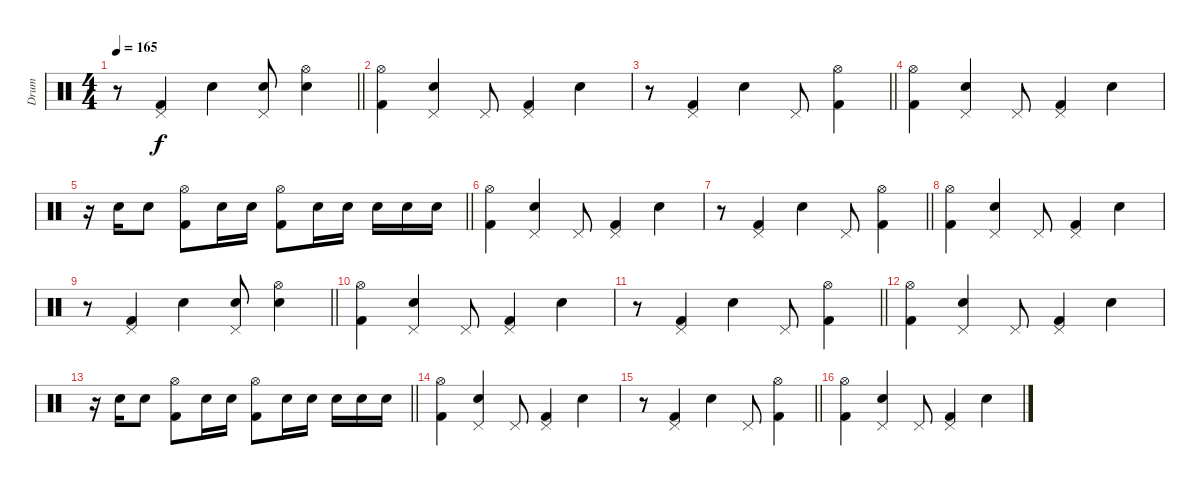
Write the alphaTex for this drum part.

\track ("Drum" "Drum") {instrument percussion}
\staff {score}
\articulation defaults
\ts (4 4)
\tempo 165
\clef neutral
\barLineRight lightlight
\ks c
r.8{dy f} ("Kick (hit) 2" "Pedal Hi-Hat (hit)").4 "Electric Snare (hit)".4 ("Electric Snare (hit)" "Pedal Hi-Hat (hit)").8 ("Electric Snare (hit)" "Hi-Hat (open)").4 |
("Kick (hit) 2" "Hi-Hat (open)").4 ("Electric Snare (hit)" "Pedal Hi-Hat (hit)").4 "Pedal Hi-Hat (hit)".8 ("Kick (hit) 2" "Pedal Hi-Hat (hit)").4 "Electric Snare (hit)".4 |
\barLineRight lightlight
r.8 ("Kick (hit) 2" "Pedal Hi-Hat (hit)").4 "Electric Snare (hit)".4 "Pedal Hi-Hat (hit)".8 ("Kick (hit) 2" "Hi-Hat (open)").4 |
("Kick (hit) 2" "Hi-Hat (open)").4 ("Electric Snare (hit)" "Pedal Hi-Hat (hit)").4 "Pedal Hi-Hat (hit)".8 ("Kick (hit) 2" "Pedal Hi-Hat (hit)").4 "Electric Snare (hit)".4 |
\barLineRight lightlight
r.16 "Electric Snare (hit)".16 "Electric Snare (hit)".8 ("Kick (hit) 2" "Hi-Hat (open)").8 "Electric Snare (hit)".16 "Electric Snare (hit)".16 ("Kick (hit) 2" "Hi-Hat (open)").8 "Electric Snare (hit)".16 "Electric Snare (hit)".16 "Electric Snare (hit)".16 "Electric Snare (hit)".16 "Electric Snare (hit)".16 |
("Kick (hit) 2" "Hi-Hat (open)").4 ("Electric Snare (hit)" "Pedal Hi-Hat (hit)").4 "Pedal Hi-Hat (hit)".8 ("Kick (hit) 2" "Pedal Hi-Hat (hit)").4 "Electric Snare (hit)".4 |
\barLineRight lightlight
r.8 ("Kick (hit) 2" "Pedal Hi-Hat (hit)").4 "Electric Snare (hit)".4 "Pedal Hi-Hat (hit)".8 ("Kick (hit) 2" "Hi-Hat (open)").4 |
("Kick (hit) 2" "Hi-Hat (open)").4 ("Electric Snare (hit)" "Pedal Hi-Hat (hit)").4 "Pedal Hi-Hat (hit)".8 ("Kick (hit) 2" "Pedal Hi-Hat (hit)").4 "Electric Snare (hit)".4 |
\barLineRight lightlight
r.8 ("Kick (hit) 2" "Pedal Hi-Hat (hit)").4 "Electric Snare (hit)".4 ("Electric Snare (hit)" "Pedal Hi-Hat (hit)").8 ("Electric Snare (hit)" "Hi-Hat (open)").4 |
("Kick (hit) 2" "Hi-Hat (open)").4 ("Electric Snare (hit)" "Pedal Hi-Hat (hit)").4 "Pedal Hi-Hat (hit)".8 ("Kick (hit) 2" "Pedal Hi-Hat (hit)").4 "Electric Snare (hit)".4 |
\barLineRight lightlight
r.8 ("Kick (hit) 2" "Pedal Hi-Hat (hit)").4 "Electric Snare (hit)".4 "Pedal Hi-Hat (hit)".8 ("Kick (hit) 2" "Hi-Hat (open)").4 |
("Kick (hit) 2" "Hi-Hat (open)").4 ("Electric Snare (hit)" "Pedal Hi-Hat (hit)").4 "Pedal Hi-Hat (hit)".8 ("Kick (hit) 2" "Pedal Hi-Hat (hit)").4 "Electric Snare (hit)".4 |
\barLineRight lightlight
r.16 "Electric Snare (hit)".16 "Electric Snare (hit)".8 ("Kick (hit) 2" "Hi-Hat (open)").8 "Electric Snare (hit)".16 "Electric Snare (hit)".16 ("Kick (hit) 2" "Hi-Hat (open)").8 "Electric Snare (hit)".16 "Electric Snare (hit)".16 "Electric Snare (hit)".16 "Electric Snare (hit)".16 "Electric Snare (hit)".16 |
("Kick (hit) 2" "Hi-Hat (open)").4 ("Electric Snare (hit)" "Pedal Hi-Hat (hit)").4 "Pedal Hi-Hat (hit)".8 ("Kick (hit) 2" "Pedal Hi-Hat (hit)").4 "Electric Snare (hit)".4 |
\barLineRight lightlight
r.8 ("Kick (hit) 2" "Pedal Hi-Hat (hit)").4 "Electric Snare (hit)".4 "Pedal Hi-Hat (hit)".8 ("Kick (hit) 2" "Hi-Hat (open)").4 |
("Kick (hit) 2" "Hi-Hat (open)").4 ("Electric Snare (hit)" "Pedal Hi-Hat (hit)").4 "Pedal Hi-Hat (hit)".8 ("Kick (hit) 2" "Pedal Hi-Hat (hit)").4 "Electric Snare (hit)".4
